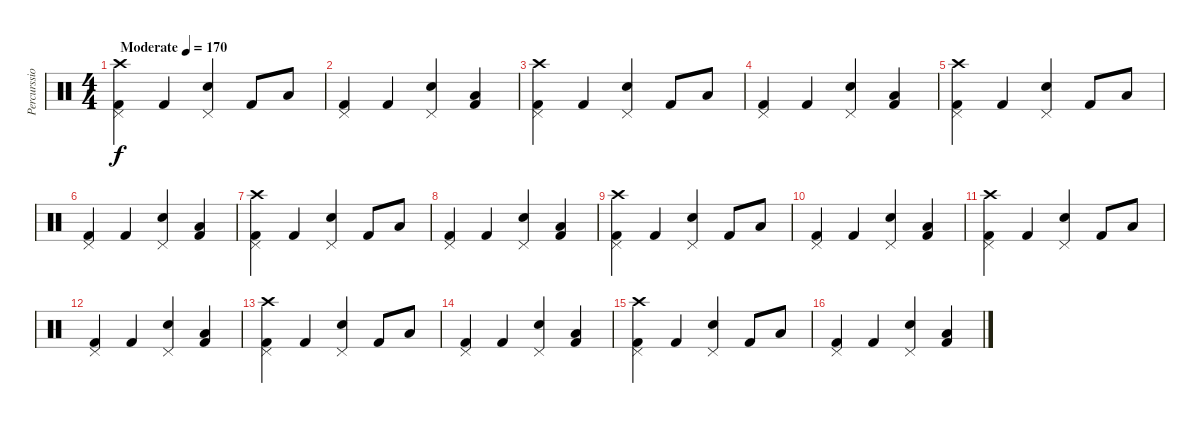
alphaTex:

\track ("Percurssion" "Percurssio") {instrument percussion}
\staff {score}
\articulation defaults
\ts (4 4)
\tempo (170 "Moderate")
\clef neutral
\ks c
("Crash high (hit)" "Pedal Hi-Hat (hit)" "Kick (hit) 2").4{dy f} "Kick (hit) 2".4 ("Pedal Hi-Hat (hit)" "Electric Snare (hit)").4 "Kick (hit) 2".8 "Low Tom (hit)".8 |
("Pedal Hi-Hat (hit)" "Kick (hit) 2").4 "Kick (hit) 2".4 ("Pedal Hi-Hat (hit)" "Electric Snare (hit)").4 ("Low Tom (hit)" "Kick (hit) 2").4{bu 240} |
("Crash high (hit)" "Pedal Hi-Hat (hit)" "Kick (hit) 2").4 "Kick (hit) 2".4 ("Pedal Hi-Hat (hit)" "Electric Snare (hit)").4 "Kick (hit) 2".8 "Low Tom (hit)".8 |
("Pedal Hi-Hat (hit)" "Kick (hit) 2").4 "Kick (hit) 2".4 ("Pedal Hi-Hat (hit)" "Electric Snare (hit)").4 ("Low Tom (hit)" "Kick (hit) 2").4{bu 240} |
("Crash high (hit)" "Pedal Hi-Hat (hit)" "Kick (hit) 2").4 "Kick (hit) 2".4 ("Pedal Hi-Hat (hit)" "Electric Snare (hit)").4 "Kick (hit) 2".8 "Low Tom (hit)".8 |
("Pedal Hi-Hat (hit)" "Kick (hit) 2").4 "Kick (hit) 2".4 ("Pedal Hi-Hat (hit)" "Electric Snare (hit)").4 ("Low Tom (hit)" "Kick (hit) 2").4{bu 240} |
("Crash high (hit)" "Pedal Hi-Hat (hit)" "Kick (hit) 2").4 "Kick (hit) 2".4 ("Pedal Hi-Hat (hit)" "Electric Snare (hit)").4 "Kick (hit) 2".8 "Low Tom (hit)".8 |
("Pedal Hi-Hat (hit)" "Kick (hit) 2").4 "Kick (hit) 2".4 ("Pedal Hi-Hat (hit)" "Electric Snare (hit)").4 ("Low Tom (hit)" "Kick (hit) 2").4{bu 240} |
("Crash high (hit)" "Pedal Hi-Hat (hit)" "Kick (hit) 2").4 "Kick (hit) 2".4 ("Pedal Hi-Hat (hit)" "Electric Snare (hit)").4 "Kick (hit) 2".8 "Low Tom (hit)".8 |
("Pedal Hi-Hat (hit)" "Kick (hit) 2").4 "Kick (hit) 2".4 ("Pedal Hi-Hat (hit)" "Electric Snare (hit)").4 ("Low Tom (hit)" "Kick (hit) 2").4{bu 240} |
("Crash high (hit)" "Pedal Hi-Hat (hit)" "Kick (hit) 2").4 "Kick (hit) 2".4 ("Pedal Hi-Hat (hit)" "Electric Snare (hit)").4 "Kick (hit) 2".8 "Low Tom (hit)".8 |
("Pedal Hi-Hat (hit)" "Kick (hit) 2").4 "Kick (hit) 2".4 ("Pedal Hi-Hat (hit)" "Electric Snare (hit)").4 ("Low Tom (hit)" "Kick (hit) 2").4{bu 240} |
("Crash high (hit)" "Pedal Hi-Hat (hit)" "Kick (hit) 2").4 "Kick (hit) 2".4 ("Pedal Hi-Hat (hit)" "Electric Snare (hit)").4 "Kick (hit) 2".8 "Low Tom (hit)".8 |
("Pedal Hi-Hat (hit)" "Kick (hit) 2").4 "Kick (hit) 2".4 ("Pedal Hi-Hat (hit)" "Electric Snare (hit)").4 ("Low Tom (hit)" "Kick (hit) 2").4{bu 240} |
("Crash high (hit)" "Pedal Hi-Hat (hit)" "Kick (hit) 2").4 "Kick (hit) 2".4 ("Pedal Hi-Hat (hit)" "Electric Snare (hit)").4 "Kick (hit) 2".8 "Low Tom (hit)".8 |
("Pedal Hi-Hat (hit)" "Kick (hit) 2").4 "Kick (hit) 2".4 ("Pedal Hi-Hat (hit)" "Electric Snare (hit)").4 ("Low Tom (hit)" "Kick (hit) 2").4{bu 240}
